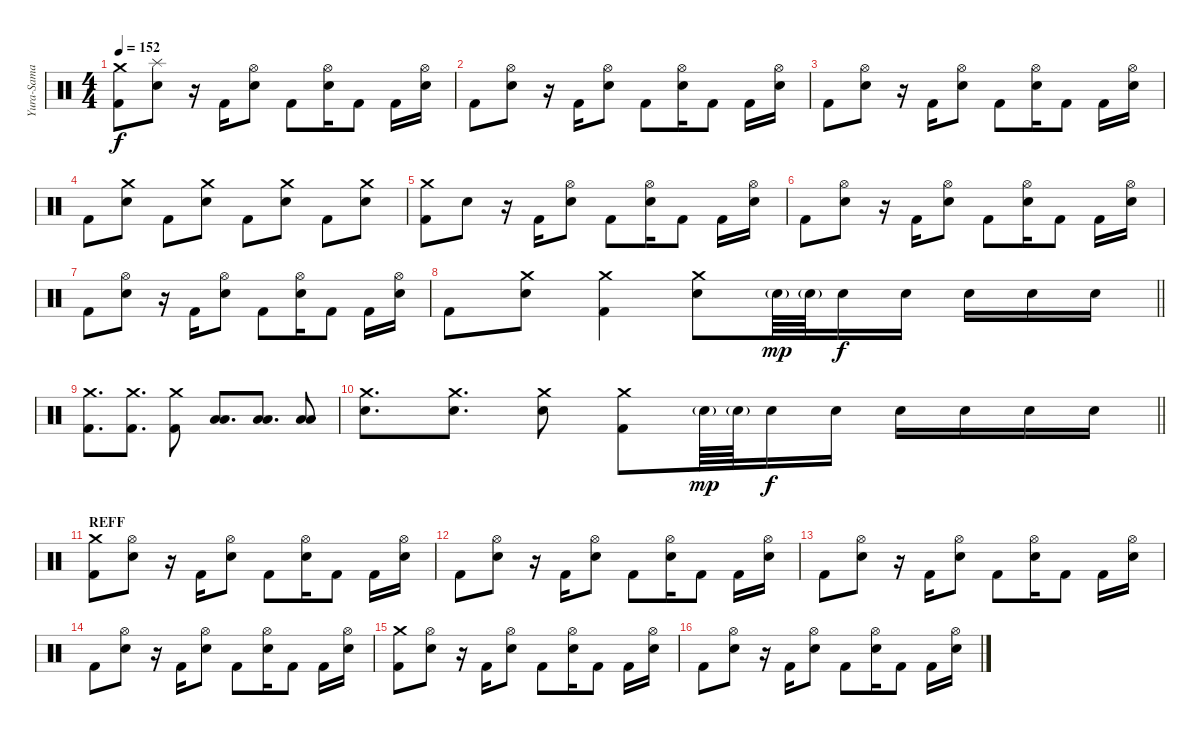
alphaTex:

\track ("Yura-Sama" "Yura-Sama") {instrument percussion}
\staff {score}
\articulation defaults
\ts (4 4)
\tempo 152
\clef neutral
\ks c
("Kick (hit) 2" "Crash medium (hit)").8{dy f} ("Electric Snare (hit)" "Splash (hit)").8 r.16 "Kick (hit) 2".16 ("Electric Snare (hit)" "Hi-Hat (open)").8 "Kick (hit) 2".8 ("Electric Snare (hit)" "Hi-Hat (open)").16 "Kick (hit) 2".8 "Kick (hit) 2".16 ("Electric Snare (hit)" "Hi-Hat (open)").16 |
"Kick (hit) 2".8 ("Electric Snare (hit)" "Hi-Hat (open)").8 r.16 "Kick (hit) 2".16 ("Electric Snare (hit)" "Hi-Hat (open)").8 "Kick (hit) 2".8 ("Electric Snare (hit)" "Hi-Hat (open)").16 "Kick (hit) 2".8 "Kick (hit) 2".16 ("Electric Snare (hit)" "Hi-Hat (open)").16 |
"Kick (hit) 2".8 ("Electric Snare (hit)" "Hi-Hat (open)").8 r.16 "Kick (hit) 2".16 ("Electric Snare (hit)" "Hi-Hat (open)").8 "Kick (hit) 2".8 ("Electric Snare (hit)" "Hi-Hat (open)").16 "Kick (hit) 2".8 "Kick (hit) 2".16 ("Electric Snare (hit)" "Hi-Hat (open)").16 |
"Kick (hit) 2".8 ("Electric Snare (hit)" "Crash medium (hit)").8 "Kick (hit) 2".8 ("Electric Snare (hit)" "Crash medium (hit)").8 "Kick (hit) 2".8 ("Electric Snare (hit)" "Crash medium (hit)").8 "Kick (hit) 2".8 ("Electric Snare (hit)" "Crash medium (hit)").8 |
("Kick (hit) 2" "Crash medium (hit)").8 "Electric Snare (hit)".8 r.16 "Kick (hit) 2".16 ("Electric Snare (hit)" "Hi-Hat (open)").8 "Kick (hit) 2".8 ("Electric Snare (hit)" "Hi-Hat (open)").16 "Kick (hit) 2".8 "Kick (hit) 2".16 ("Electric Snare (hit)" "Hi-Hat (open)").16 |
"Kick (hit) 2".8 ("Electric Snare (hit)" "Hi-Hat (open)").8 r.16 "Kick (hit) 2".16 ("Electric Snare (hit)" "Hi-Hat (open)").8 "Kick (hit) 2".8 ("Electric Snare (hit)" "Hi-Hat (open)").16 "Kick (hit) 2".8 "Kick (hit) 2".16 ("Electric Snare (hit)" "Hi-Hat (open)").16 |
"Kick (hit) 2".8 ("Electric Snare (hit)" "Hi-Hat (open)").8 r.16 "Kick (hit) 2".16 ("Electric Snare (hit)" "Hi-Hat (open)").8 "Kick (hit) 2".8 ("Electric Snare (hit)" "Hi-Hat (open)").16 "Kick (hit) 2".8 "Kick (hit) 2".16 ("Electric Snare (hit)" "Hi-Hat (open)").16 |
\barLineRight lightlight "Kick (hit) 2".8
("Electric Snare (hit)" "Crash medium (hit)").8 ("Kick (hit) 2" "Crash medium (hit)").4 ("Electric Snare (hit)" "Crash medium (hit)").8 "Electric Snare (hit)"{g}.64{dy mp} "Electric Snare (hit)"{g}.64 "Electric Snare (hit)".16{dy f} "Electric Snare (hit)".16 "Electric Snare (hit)".16 "Electric Snare (hit)".16 "Electric Snare (hit)".16 |
("Kick (hit) 2" "Crash medium (hit)").8{d} ("Kick (hit) 2" "Crash medium (hit)").8{d} ("Kick (hit) 2" "Crash medium (hit)").8 ("Low Tom (hit)" "Low Floor Tom (hit)").8{d} ("Low Tom (hit)" "Low Floor Tom (hit)").8{d} ("Low Tom (hit)" "Low Floor Tom (hit)").8 |
\barLineRight lightlight
("Electric Snare (hit)" "Crash medium (hit)").8{d} ("Electric Snare (hit)" "Crash medium (hit)").8{d} ("Electric Snare (hit)" "Crash medium (hit)").8 ("Kick (hit) 2" "Crash medium (hit)").8 "Electric Snare (hit)"{g}.64{dy mp} "Electric Snare (hit)"{g}.64 "Electric Snare (hit)".16{dy f} "Electric Snare (hit)".16 "Electric Snare (hit)".16 "Electric Snare (hit)".16 "Electric Snare (hit)".16 "Electric Snare (hit)".16 |
\section ("" "REFF")
("Kick (hit) 2" "Crash medium (hit)").8 ("Electric Snare (hit)" "Hi-Hat (open)").8 r.16 "Kick (hit) 2".16 ("Electric Snare (hit)" "Hi-Hat (open)").8 "Kick (hit) 2".8 ("Electric Snare (hit)" "Hi-Hat (open)").16 "Kick (hit) 2".8 "Kick (hit) 2".16 ("Electric Snare (hit)" "Hi-Hat (open)").16 |
"Kick (hit) 2".8 ("Electric Snare (hit)" "Hi-Hat (open)").8 r.16 "Kick (hit) 2".16 ("Electric Snare (hit)" "Hi-Hat (open)").8 "Kick (hit) 2".8 ("Electric Snare (hit)" "Hi-Hat (open)").16 "Kick (hit) 2".8 "Kick (hit) 2".16 ("Electric Snare (hit)" "Hi-Hat (open)").16 |
"Kick (hit) 2".8 ("Electric Snare (hit)" "Hi-Hat (open)").8 r.16 "Kick (hit) 2".16 ("Electric Snare (hit)" "Hi-Hat (open)").8 "Kick (hit) 2".8 ("Electric Snare (hit)" "Hi-Hat (open)").16 "Kick (hit) 2".8 "Kick (hit) 2".16 ("Electric Snare (hit)" "Hi-Hat (open)").16 |
"Kick (hit) 2".8 ("Electric Snare (hit)" "Hi-Hat (open)").8 r.16 "Kick (hit) 2".16 ("Electric Snare (hit)" "Hi-Hat (open)").8 "Kick (hit) 2".8 ("Electric Snare (hit)" "Hi-Hat (open)").16 "Kick (hit) 2".8 "Kick (hit) 2".16 ("Electric Snare (hit)" "Hi-Hat (open)").16 |
("Kick (hit) 2" "Crash medium (hit)").8 ("Electric Snare (hit)" "Hi-Hat (open)").8 r.16 "Kick (hit) 2".16 ("Electric Snare (hit)" "Hi-Hat (open)").8 "Kick (hit) 2".8 ("Electric Snare (hit)" "Hi-Hat (open)").16 "Kick (hit) 2".8 "Kick (hit) 2".16 ("Electric Snare (hit)" "Hi-Hat (open)").16 |
"Kick (hit) 2".8 ("Electric Snare (hit)" "Hi-Hat (open)").8 r.16 "Kick (hit) 2".16 ("Electric Snare (hit)" "Hi-Hat (open)").8 "Kick (hit) 2".8 ("Electric Snare (hit)" "Hi-Hat (open)").16 "Kick (hit) 2".8 "Kick (hit) 2".16 ("Electric Snare (hit)" "Hi-Hat (open)").16
